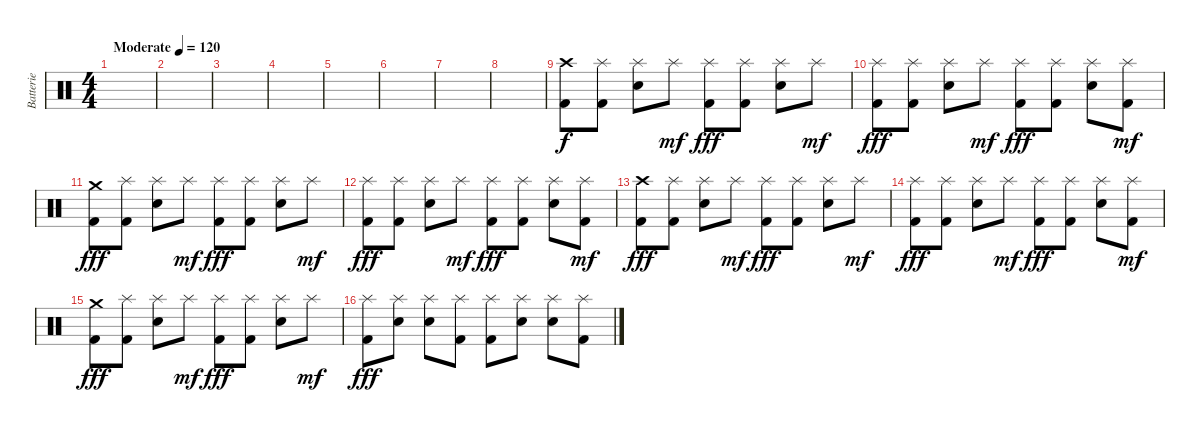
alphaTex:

\track ("Batterie" "Batterie") {instrument percussion}
\staff {score}
\articulation defaults
\ts (4 4)
\tempo (120 "Moderate")
\clef neutral
\ks c
|
|
|
|
|
|
|
|
("Crash high (hit)" "Kick (hit) 2").8 ("Splash (hit)" "Kick (hit) 2").8 ("Splash (hit)" "Electric Snare (hit)").8 "Splash (hit)".8{dy mf} ("Splash (hit)" "Kick (hit) 2").8{dy fff} ("Splash (hit)" "Kick (hit) 2").8 ("Splash (hit)" "Electric Snare (hit)").8 "Splash (hit)".8{dy mf} |
("Splash (hit)" "Kick (hit) 2").8{dy fff} ("Splash (hit)" "Kick (hit) 2").8 ("Splash (hit)" "Electric Snare (hit)").8 "Splash (hit)".8{dy mf} ("Splash (hit)" "Kick (hit) 2").8{dy fff} ("Splash (hit)" "Kick (hit) 2").8 ("Splash (hit)" "Electric Snare (hit)").8 ("Splash (hit)" "Kick (hit) 2").8{dy mf} |
("Crash medium (hit)" "Kick (hit) 2").8{dy fff} ("Splash (hit)" "Kick (hit) 2").8 ("Splash (hit)" "Electric Snare (hit)").8 "Splash (hit)".8{dy mf} ("Splash (hit)" "Kick (hit) 2").8{dy fff} ("Splash (hit)" "Kick (hit) 2").8 ("Splash (hit)" "Electric Snare (hit)").8 "Splash (hit)".8{dy mf} |
("Splash (hit)" "Kick (hit) 2").8{dy fff} ("Splash (hit)" "Kick (hit) 2").8 ("Splash (hit)" "Electric Snare (hit)").8 "Splash (hit)".8{dy mf} ("Splash (hit)" "Kick (hit) 2").8{dy fff} ("Splash (hit)" "Kick (hit) 2").8 ("Splash (hit)" "Electric Snare (hit)").8 ("Splash (hit)" "Kick (hit) 2").8{dy mf} |
("Crash high (hit)" "Kick (hit) 2").8{dy fff} ("Splash (hit)" "Kick (hit) 2").8 ("Splash (hit)" "Electric Snare (hit)").8 "Splash (hit)".8{dy mf} ("Splash (hit)" "Kick (hit) 2").8{dy fff} ("Splash (hit)" "Kick (hit) 2").8 ("Splash (hit)" "Electric Snare (hit)").8 "Splash (hit)".8{dy mf} |
("Splash (hit)" "Kick (hit) 2").8{dy fff} ("Splash (hit)" "Kick (hit) 2").8 ("Splash (hit)" "Electric Snare (hit)").8 "Splash (hit)".8{dy mf} ("Splash (hit)" "Kick (hit) 2").8{dy fff} ("Splash (hit)" "Kick (hit) 2").8 ("Splash (hit)" "Electric Snare (hit)").8 ("Splash (hit)" "Kick (hit) 2").8{dy mf} |
("Crash medium (hit)" "Kick (hit) 2").8{dy fff} ("Splash (hit)" "Kick (hit) 2").8 ("Splash (hit)" "Electric Snare (hit)").8 "Splash (hit)".8{dy mf} ("Splash (hit)" "Kick (hit) 2").8{dy fff} ("Splash (hit)" "Kick (hit) 2").8 ("Splash (hit)" "Electric Snare (hit)").8 "Splash (hit)".8{dy mf} |
("Splash (hit)" "Kick (hit) 2").8{dy fff} ("Splash (hit)" "Electric Snare (hit)").8 ("Splash (hit)" "Electric Snare (hit)").8 ("Splash (hit)" "Kick (hit) 2").8 ("Splash (hit)" "Kick (hit) 2").8 ("Splash (hit)" "Electric Snare (hit)").8 ("Splash (hit)" "Electric Snare (hit)").8 ("Splash (hit)" "Kick (hit) 2").8
